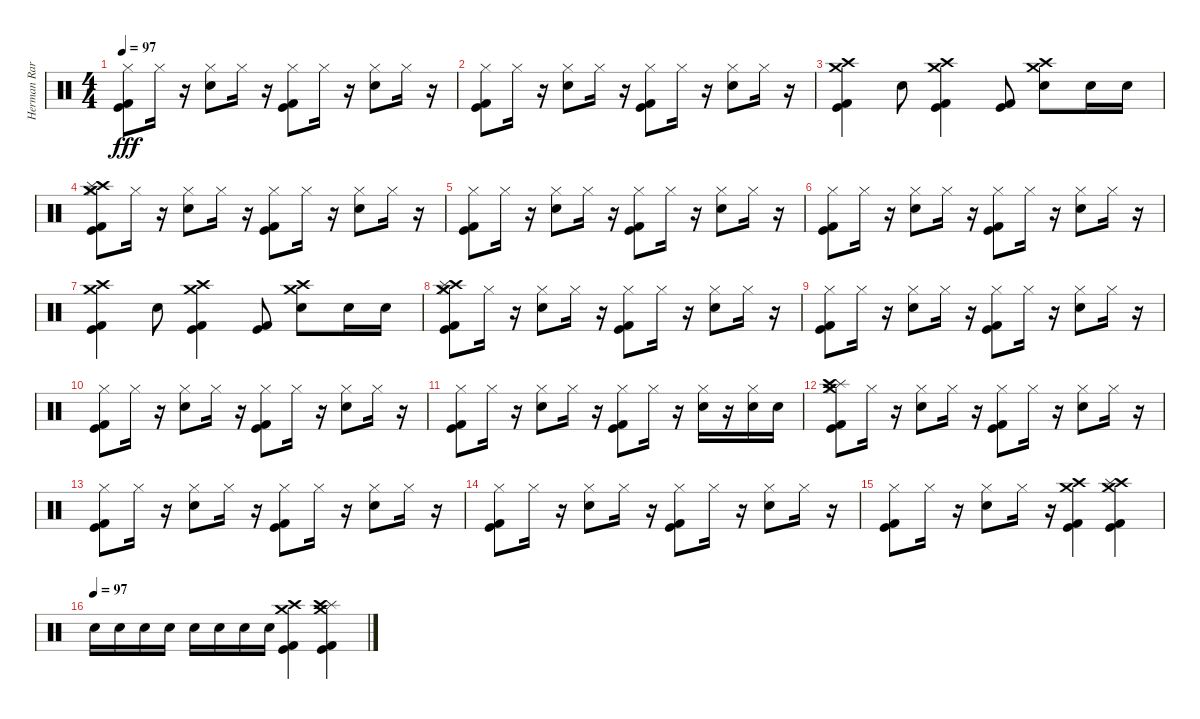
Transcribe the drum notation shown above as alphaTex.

\track ("Herman Rarebell" "Herman Rar") {instrument percussion}
\staff {score}
\articulation defaults
\ts (4 4)
\tempo 97
\clef neutral
\ks c
("Hi-Hat (closed)" "Kick (hit)" "Kick (hit) 2").8{dy fff} "Hi-Hat (closed)".16 r.16 ("Snare (hit) 2" "Hi-Hat (closed)").8 "Hi-Hat (closed)".16 r.16 ("Kick (hit) 2" "Kick (hit)" "Hi-Hat (closed)").8 "Hi-Hat (closed)".16 r.16 ("Snare (hit) 2" "Hi-Hat (closed)").8 "Hi-Hat (closed)".16 r.16 |
("Hi-Hat (closed)" "Kick (hit)" "Kick (hit) 2").8 "Hi-Hat (closed)".16 r.16 ("Snare (hit) 2" "Hi-Hat (closed)").8 "Hi-Hat (closed)".16 r.16 ("Kick (hit) 2" "Kick (hit)" "Hi-Hat (closed)").8 "Hi-Hat (closed)".16 r.16 ("Snare (hit) 2" "Hi-Hat (closed)").8 "Hi-Hat (closed)".16 r.16 |
("Crash medium (hit)" "Crash high (hit)" "Kick (hit)" "Kick (hit) 2").4 "Snare (hit) 2".8 ("Crash medium (hit)" "Crash high (hit)" "Kick (hit)" "Kick (hit) 2").4 ("Kick (hit)" "Kick (hit) 2").8 ("Crash medium (hit)" "Crash high (hit)" "Snare (hit) 2").8 "Snare (hit) 2".16 "Snare (hit) 2".16 |
("Hi-Hat (closed)" "Crash high (hit)" "Splash (hit)" "Crash medium (hit)" "Kick (hit)" "Kick (hit) 2").8 "Hi-Hat (closed)".16 r.16 ("Snare (hit) 2" "Hi-Hat (closed)").8 "Hi-Hat (closed)".16 r.16 ("Kick (hit) 2" "Kick (hit)" "Hi-Hat (closed)").8 "Hi-Hat (closed)".16 r.16 ("Snare (hit) 2" "Hi-Hat (closed)").8 "Hi-Hat (closed)".16 r.16 |
("Hi-Hat (closed)" "Kick (hit)" "Kick (hit) 2").8 "Hi-Hat (closed)".16 r.16 ("Snare (hit) 2" "Hi-Hat (closed)").8 "Hi-Hat (closed)".16 r.16 ("Kick (hit) 2" "Kick (hit)" "Hi-Hat (closed)").8 "Hi-Hat (closed)".16 r.16 ("Snare (hit) 2" "Hi-Hat (closed)").8 "Hi-Hat (closed)".16 r.16 |
("Hi-Hat (closed)" "Kick (hit)" "Kick (hit) 2").8 "Hi-Hat (closed)".16 r.16 ("Snare (hit) 2" "Hi-Hat (closed)").8 "Hi-Hat (closed)".16 r.16 ("Kick (hit) 2" "Kick (hit)" "Hi-Hat (closed)").8 "Hi-Hat (closed)".16 r.16 ("Snare (hit) 2" "Hi-Hat (closed)").8 "Hi-Hat (closed)".16 r.16 |
("Kick (hit) 2" "Kick (hit)" "Crash high (hit)" "Crash medium (hit)").4 "Snare (hit) 2".8 ("Crash medium (hit)" "Crash high (hit)" "Kick (hit)" "Kick (hit) 2").4 ("Kick (hit)" "Kick (hit) 2").8 ("Crash medium (hit)" "Crash high (hit)" "Snare (hit) 2").8 "Snare (hit) 2".16 "Snare (hit) 2".16 |
("Hi-Hat (closed)" "Crash high (hit)" "Splash (hit)" "Crash medium (hit)" "Kick (hit)" "Kick (hit) 2").8 "Hi-Hat (closed)".16 r.16 ("Snare (hit) 2" "Hi-Hat (closed)").8 "Hi-Hat (closed)".16 r.16 ("Kick (hit) 2" "Kick (hit)" "Hi-Hat (closed)").8 "Hi-Hat (closed)".16 r.16 ("Snare (hit) 2" "Hi-Hat (closed)").8 "Hi-Hat (closed)".16 r.16 |
("Hi-Hat (closed)" "Kick (hit)" "Kick (hit) 2").8 "Hi-Hat (closed)".16 r.16 ("Snare (hit) 2" "Hi-Hat (closed)").8 "Hi-Hat (closed)".16 r.16 ("Kick (hit) 2" "Kick (hit)" "Hi-Hat (closed)").8 "Hi-Hat (closed)".16 r.16 ("Snare (hit) 2" "Hi-Hat (closed)").8 "Hi-Hat (closed)".16 r.16 |
("Hi-Hat (closed)" "Kick (hit)" "Kick (hit) 2").8 "Hi-Hat (closed)".16 r.16 ("Snare (hit) 2" "Hi-Hat (closed)").8 "Hi-Hat (closed)".16 r.16 ("Kick (hit) 2" "Kick (hit)" "Hi-Hat (closed)").8 "Hi-Hat (closed)".16 r.16 ("Snare (hit) 2" "Hi-Hat (closed)").8 "Hi-Hat (closed)".16 r.16 |
("Hi-Hat (closed)" "Kick (hit)" "Kick (hit) 2").8 "Hi-Hat (closed)".16 r.16 ("Snare (hit) 2" "Hi-Hat (closed)").8 "Hi-Hat (closed)".16 r.16 ("Kick (hit) 2" "Kick (hit)" "Hi-Hat (closed)").8 "Hi-Hat (closed)".16 r.16 ("Hi-Hat (closed)" "Snare (hit) 2").16 r.16 ("Hi-Hat (closed)" "Snare (hit) 2").16 "Snare (hit) 2".16 |
("Kick (hit) 2" "Kick (hit)" "Crash medium (hit)" "Splash (hit)" "Crash high (hit)" "Hi-Hat (closed)").8 "Hi-Hat (closed)".16 r.16 ("Snare (hit) 2" "Hi-Hat (closed)").8 "Hi-Hat (closed)".16 r.16 ("Kick (hit) 2" "Kick (hit)" "Hi-Hat (closed)").8 "Hi-Hat (closed)".16 r.16 ("Snare (hit) 2" "Hi-Hat (closed)").8 "Hi-Hat (closed)".16 r.16 |
("Hi-Hat (closed)" "Kick (hit)" "Kick (hit) 2").8 "Hi-Hat (closed)".16 r.16 ("Snare (hit) 2" "Hi-Hat (closed)").8 "Hi-Hat (closed)".16 r.16 ("Kick (hit) 2" "Kick (hit)" "Hi-Hat (closed)").8 "Hi-Hat (closed)".16 r.16 ("Snare (hit) 2" "Hi-Hat (closed)").8 "Hi-Hat (closed)".16 r.16 |
("Hi-Hat (closed)" "Kick (hit)" "Kick (hit) 2").8 "Hi-Hat (closed)".16 r.16 ("Snare (hit) 2" "Hi-Hat (closed)").8 "Hi-Hat (closed)".16 r.16 ("Kick (hit) 2" "Kick (hit)" "Hi-Hat (closed)").8 "Hi-Hat (closed)".16 r.16 ("Snare (hit) 2" "Hi-Hat (closed)").8 "Hi-Hat (closed)".16 r.16 |
("Hi-Hat (closed)" "Kick (hit)" "Kick (hit) 2").8 "Hi-Hat (closed)".16 r.16 ("Hi-Hat (closed)" "Snare (hit) 2").8 "Hi-Hat (closed)".16 r.16 ("Kick (hit) 2" "Kick (hit)" "Crash high (hit)" "Crash medium (hit)").4 ("Kick (hit) 2" "Kick (hit)" "Crash high (hit)" "Crash medium (hit)" "Splash (hit)").4 |
\tempo (97)
"Snare (hit) 2".16 "Snare (hit) 2".16 "Snare (hit) 2".16 "Snare (hit) 2".16 "Snare (hit) 2".16 "Snare (hit) 2".16 "Snare (hit) 2".16 "Snare (hit) 2".16 ("Kick (hit) 2" "Kick (hit)" "Crash medium (hit)" "Crash high (hit)").4 ("Kick (hit)" "Kick (hit) 2" "Crash medium (hit)" "Splash (hit)" "Crash high (hit)").4
